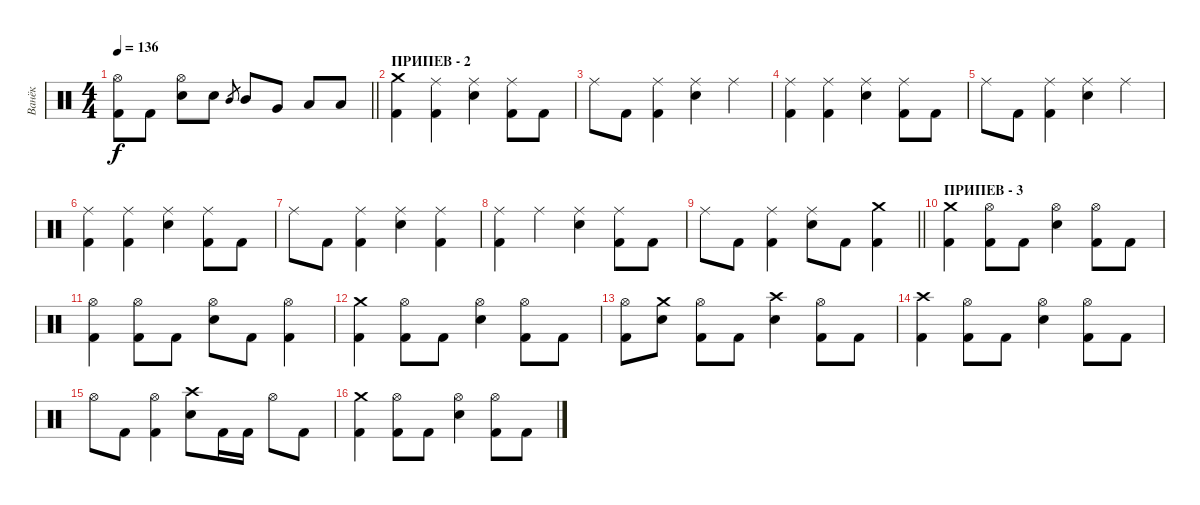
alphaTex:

\track ("Ванёк" "Ванёк") {instrument percussion}
\staff {score}
\articulation defaults
\ts (4 4)
\tempo 136
\clef neutral
\barLineRight lightlight
\ks c
("Hi-Hat (open)" "Kick (hit) 2").8{dy f} "Kick (hit) 2".8 ("Hi-Hat (open)" "Snare (hit) 2").8 "Snare (hit) 2".8 "Mid Tom (hit)".8{gr} "Mid Tom (hit)".8 "Very Low Tom (hit)".8 "Low Tom (hit)".8 "Low Tom (hit)".8 |
\section ("" "ПРИПЕВ - 2")
("Crash medium (hit)" "Kick (hit) 2").4 ("Ride (middle)" "Kick (hit) 2").4 ("Ride (middle)" "Snare (hit) 2").4 ("Ride (middle)" "Kick (hit) 2").8 "Kick (hit) 2".8 |
"Ride (middle)".8 "Kick (hit) 2".8 ("Ride (middle)" "Kick (hit) 2").4 ("Ride (middle)" "Snare (hit) 2").4 "Ride (middle)".4 |
("Ride (middle)" "Kick (hit) 2").4 ("Ride (middle)" "Kick (hit) 2").4 ("Ride (middle)" "Snare (hit) 2").4 ("Ride (middle)" "Kick (hit) 2").8 "Kick (hit) 2".8 |
"Ride (middle)".8 "Kick (hit) 2".8 ("Ride (middle)" "Kick (hit) 2").4 ("Ride (middle)" "Snare (hit) 2").4 "Ride (middle)".4 |
("Ride (middle)" "Kick (hit) 2").4 ("Ride (middle)" "Kick (hit) 2").4 ("Ride (middle)" "Snare (hit) 2").4 ("Ride (middle)" "Kick (hit) 2").8 "Kick (hit) 2".8 |
"Ride (middle)".8 "Kick (hit) 2".8 ("Ride (middle)" "Kick (hit) 2").4 ("Ride (middle)" "Snare (hit) 2").4 ("Ride (middle)" "Kick (hit) 2").4 |
("Ride (middle)" "Kick (hit) 2").4 "Ride (middle)".4 ("Ride (middle)" "Snare (hit) 2").4 ("Ride (middle)" "Kick (hit) 2").8 "Kick (hit) 2".8 |
\barLineRight lightlight "Ride (middle)".8 "Kick (hit) 2".8
("Ride (middle)" "Kick (hit) 2").4 ("Ride (middle)" "Snare (hit) 2").8 "Kick (hit) 2".8 ("Crash medium (hit)" "Kick (hit) 2").4 |
\section ("" "ПРИПЕВ - 3")
("Crash medium (hit)" "Kick (hit) 2").4 ("Hi-Hat (open)" "Kick (hit) 2").8 "Kick (hit) 2".8 ("Hi-Hat (open)" "Snare (hit) 2").4 ("Hi-Hat (open)" "Kick (hit) 2").8 "Kick (hit) 2".8 |
("Hi-Hat (open)" "Kick (hit) 2").4 ("Hi-Hat (open)" "Kick (hit) 2").8 "Kick (hit) 2".8 ("Hi-Hat (open)" "Snare (hit) 2").8 "Kick (hit) 2".8 ("Hi-Hat (open)" "Kick (hit) 2").4 |
("Crash medium (hit)" "Kick (hit) 2").4 ("Hi-Hat (open)" "Kick (hit) 2").8 "Kick (hit) 2".8 ("Hi-Hat (open)" "Snare (hit) 2").4 ("Hi-Hat (open)" "Kick (hit) 2").8 "Kick (hit) 2".8 |
("Hi-Hat (open)" "Kick (hit) 2").8 ("Crash medium (hit)" "Snare (hit) 2").8 ("Hi-Hat (open)" "Kick (hit) 2").8 "Kick (hit) 2".8 ("Crash high (hit)" "Snare (hit) 2").4 ("Hi-Hat (open)" "Kick (hit) 2").8 "Kick (hit) 2".8 |
("Crash high (hit)" "Kick (hit) 2").4 ("Hi-Hat (open)" "Kick (hit) 2").8 "Kick (hit) 2".8 ("Hi-Hat (open)" "Snare (hit) 2").4 ("Hi-Hat (open)" "Kick (hit) 2").8 "Kick (hit) 2".8 |
"Hi-Hat (open)".8 "Kick (hit) 2".8 ("Hi-Hat (open)" "Kick (hit) 2").4 ("Crash high (hit)" "Snare (hit) 2").8 "Kick (hit) 2".16 "Kick (hit) 2".16 "Hi-Hat (open)".8 "Kick (hit) 2".8 |
("Crash medium (hit)" "Kick (hit) 2").4 ("Hi-Hat (open)" "Kick (hit) 2").8 "Kick (hit) 2".8 ("Hi-Hat (open)" "Snare (hit) 2").4 ("Hi-Hat (open)" "Kick (hit) 2").8 "Kick (hit) 2".8
